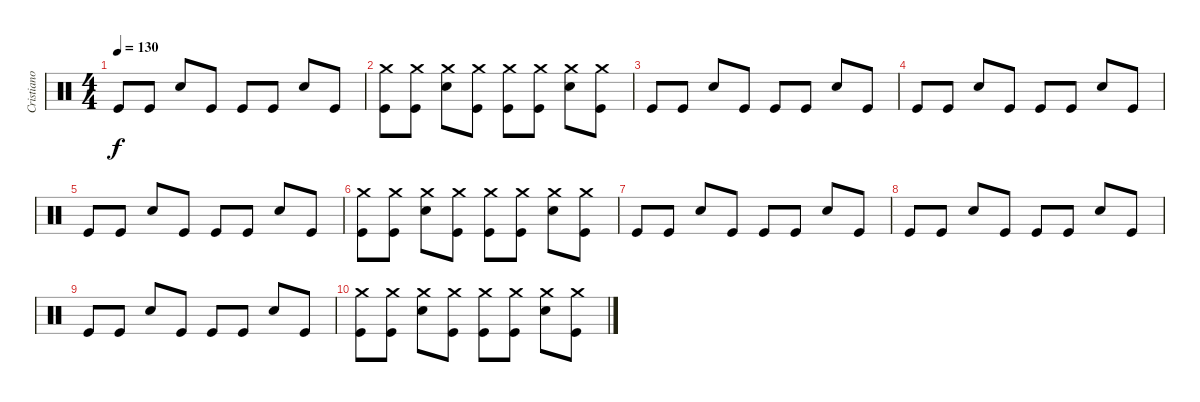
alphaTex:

\track ("Cristiano Mozzati" "Cristiano ") {instrument percussion}
\staff {score}
\articulation defaults
\ts (4 4)
\tempo 130
\clef neutral
\ks c "Kick (hit)".8{dy f} "Kick (hit)".8 "Snare (hit) 2".8 "Kick (hit)".8 "Kick (hit)".8 "Kick (hit)".8 "Snare (hit) 2".8 "Kick (hit)".8
|
("Kick (hit)" "Crash medium (hit)").8 ("Kick (hit)" "Crash medium (hit)").8 ("Snare (hit) 2" "Crash medium (hit)").8 ("Kick (hit)" "Crash medium (hit)").8 ("Kick (hit)" "Crash medium (hit)").8 ("Kick (hit)" "Crash medium (hit)").8 ("Snare (hit) 2" "Crash medium (hit)").8 ("Kick (hit)" "Crash medium (hit)").8 |
"Kick (hit)".8 "Kick (hit)".8 "Snare (hit) 2".8 "Kick (hit)".8 "Kick (hit)".8 "Kick (hit)".8 "Snare (hit) 2".8 "Kick (hit)".8 |
"Kick (hit)".8 "Kick (hit)".8 "Snare (hit) 2".8 "Kick (hit)".8 "Kick (hit)".8 "Kick (hit)".8 "Snare (hit) 2".8 "Kick (hit)".8 |
"Kick (hit)".8 "Kick (hit)".8 "Snare (hit) 2".8 "Kick (hit)".8 "Kick (hit)".8 "Kick (hit)".8 "Snare (hit) 2".8 "Kick (hit)".8 |
("Kick (hit)" "Crash medium (hit)").8 ("Kick (hit)" "Crash medium (hit)").8 ("Snare (hit) 2" "Crash medium (hit)").8 ("Kick (hit)" "Crash medium (hit)").8 ("Kick (hit)" "Crash medium (hit)").8 ("Kick (hit)" "Crash medium (hit)").8 ("Snare (hit) 2" "Crash medium (hit)").8 ("Kick (hit)" "Crash medium (hit)").8 |
"Kick (hit)".8 "Kick (hit)".8 "Snare (hit) 2".8 "Kick (hit)".8 "Kick (hit)".8 "Kick (hit)".8 "Snare (hit) 2".8 "Kick (hit)".8 |
"Kick (hit)".8 "Kick (hit)".8 "Snare (hit) 2".8 "Kick (hit)".8 "Kick (hit)".8 "Kick (hit)".8 "Snare (hit) 2".8 "Kick (hit)".8 |
"Kick (hit)".8 "Kick (hit)".8 "Snare (hit) 2".8 "Kick (hit)".8 "Kick (hit)".8 "Kick (hit)".8 "Snare (hit) 2".8 "Kick (hit)".8 |
("Kick (hit)" "Crash medium (hit)").8 ("Kick (hit)" "Crash medium (hit)").8 ("Snare (hit) 2" "Crash medium (hit)").8 ("Kick (hit)" "Crash medium (hit)").8 ("Kick (hit)" "Crash medium (hit)").8 ("Kick (hit)" "Crash medium (hit)").8 ("Snare (hit) 2" "Crash medium (hit)").8 ("Kick (hit)" "Crash medium (hit)").8
